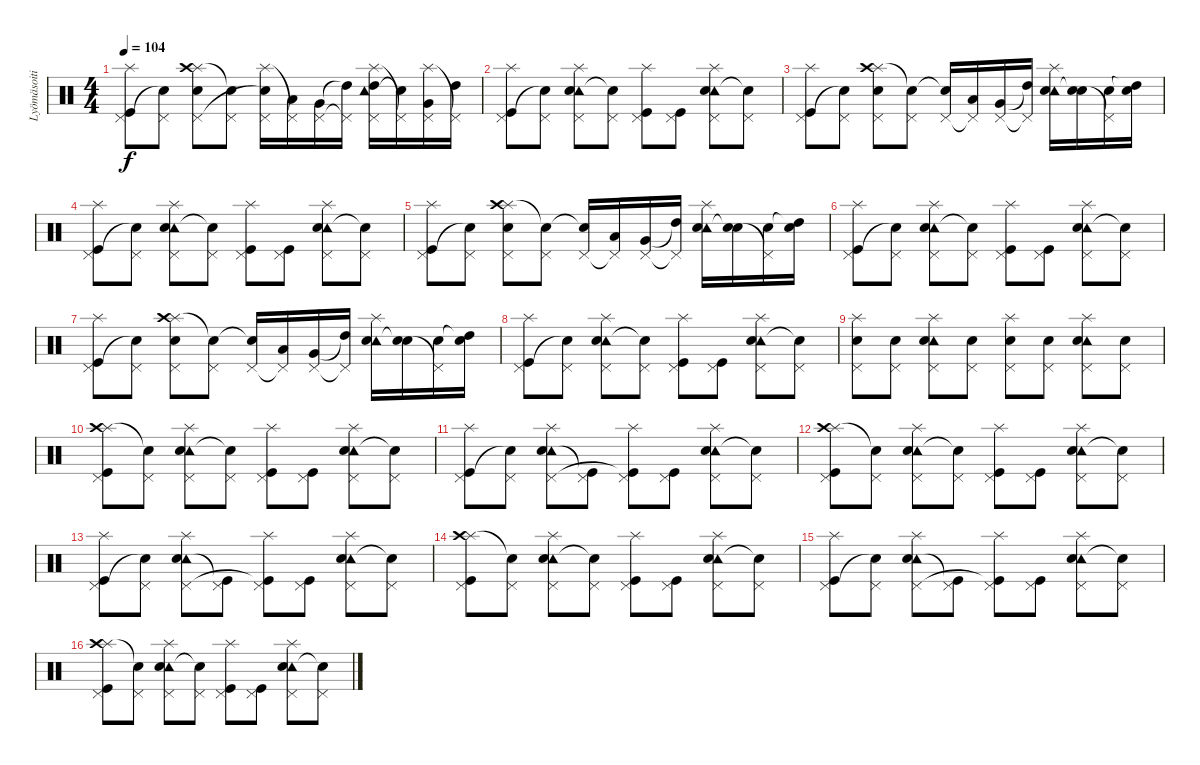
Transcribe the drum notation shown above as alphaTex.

\track ("Lyömäsoitin" "Lyömäsoiti") {instrument percussion}
\staff {score}
\articulation defaults
\ts (4 4)
\tempo 104
\clef neutral
\ks c
("Splash (hit)" "Pedal Hi-Hat (hit)" "Kick (hit)").8{dy f} ("Pedal Hi-Hat (hit)" "Snare (hit)"{t}).8 ("Splash (hit)" "Crash high (hit)" "Pedal Hi-Hat (hit)" "Snare (hit) 2").8 ("Pedal Hi-Hat (hit)" "Snare (hit)"{t}).8 ("Splash (hit)" "Pedal Hi-Hat (hit)" "Snare (hit)"{t}).16{volume 15} ("Pedal Hi-Hat (hit)"{t} "Low Tom (hit)").16 ("Pedal Hi-Hat (hit)" "Very Low Tom (hit)").16 ("Pedal Hi-Hat (hit)"{t} "High Tom (hit)"{t}).16 ("Splash (hit)" "Tambourine (hit)" "Pedal Hi-Hat (hit)" "High Tom (hit)").16 ("Pedal Hi-Hat (hit)"{t} "Snare (hit)"{t}).16 ("Splash (hit)" "Pedal Hi-Hat (hit)" "Very Low Tom (hit)").16 ("Pedal Hi-Hat (hit)"{t} "High Tom (hit)").16 |
("Splash (hit)" "Pedal Hi-Hat (hit)" "Kick (hit)").8 ("Pedal Hi-Hat (hit)" "Snare (hit)"{t}).8 ("Splash (hit)" "Tambourine (hit)" "Pedal Hi-Hat (hit)" "Snare (hit) 2").8 ("Pedal Hi-Hat (hit)" "Snare (hit)"{t}).8 ("Splash (hit)" "Pedal Hi-Hat (hit)" "Kick (hit)").8 ("Pedal Hi-Hat (hit)" "Kick (hit)").8 ("Splash (hit)" "Tambourine (hit)" "Pedal Hi-Hat (hit)" "Snare (hit) 2").8 ("Pedal Hi-Hat (hit)" "Snare (hit)"{t}).8 |
("Splash (hit)" "Pedal Hi-Hat (hit)" "Kick (hit)").8 ("Pedal Hi-Hat (hit)" "Snare (hit)"{t}).8 ("Splash (hit)" "Crash high (hit)" "Pedal Hi-Hat (hit)" "Snare (hit) 2").8 ("Pedal Hi-Hat (hit)" "Snare (hit)"{t}).8 ("Pedal Hi-Hat (hit)" "Snare (hit)"{t}).16 ("Pedal Hi-Hat (hit)"{t} "Low Tom (hit)").16 ("Pedal Hi-Hat (hit)" "Very Low Tom (hit)").16 ("Pedal Hi-Hat (hit)"{t} "High Tom (hit)"{t}).16 ("Splash (hit)" "Tambourine (hit)" "Electric Snare (hit)").16 ("Electric Snare (hit)" "Snare (hit)"{t}).16 ("Pedal Hi-Hat (hit)"{t} "Electric Snare (hit)").16 ("Electric Snare (hit)" "High Tom (hit)"{t}).16 |
("Splash (hit)" "Pedal Hi-Hat (hit)" "Kick (hit)").8 ("Pedal Hi-Hat (hit)" "Snare (hit)"{t}).8 ("Splash (hit)" "Tambourine (hit)" "Pedal Hi-Hat (hit)" "Snare (hit) 2").8 ("Pedal Hi-Hat (hit)" "Snare (hit)"{t}).8 ("Splash (hit)" "Pedal Hi-Hat (hit)" "Kick (hit)").8 ("Pedal Hi-Hat (hit)" "Kick (hit)").8 ("Splash (hit)" "Tambourine (hit)" "Pedal Hi-Hat (hit)" "Snare (hit) 2").8 ("Pedal Hi-Hat (hit)" "Snare (hit)"{t}).8 |
("Splash (hit)" "Pedal Hi-Hat (hit)" "Kick (hit)").8 ("Pedal Hi-Hat (hit)" "Snare (hit)"{t}).8 ("Splash (hit)" "Crash high (hit)" "Pedal Hi-Hat (hit)" "Snare (hit) 2").8 ("Pedal Hi-Hat (hit)" "Snare (hit)"{t}).8 ("Pedal Hi-Hat (hit)" "Snare (hit)"{t}).16 ("Pedal Hi-Hat (hit)"{t} "Low Tom (hit)").16 ("Pedal Hi-Hat (hit)" "Very Low Tom (hit)").16 ("Pedal Hi-Hat (hit)"{t} "High Tom (hit)"{t}).16 ("Splash (hit)" "Tambourine (hit)" "Electric Snare (hit)").16 ("Electric Snare (hit)" "Snare (hit)"{t}).16 ("Pedal Hi-Hat (hit)"{t} "Electric Snare (hit)").16 ("Electric Snare (hit)" "High Tom (hit)"{t}).16 |
("Splash (hit)" "Pedal Hi-Hat (hit)" "Kick (hit)").8 ("Pedal Hi-Hat (hit)" "Snare (hit)"{t}).8 ("Splash (hit)" "Tambourine (hit)" "Pedal Hi-Hat (hit)" "Snare (hit) 2").8 ("Pedal Hi-Hat (hit)" "Snare (hit)"{t}).8 ("Splash (hit)" "Pedal Hi-Hat (hit)" "Kick (hit)").8 ("Pedal Hi-Hat (hit)" "Kick (hit)").8 ("Splash (hit)" "Tambourine (hit)" "Pedal Hi-Hat (hit)" "Snare (hit) 2").8 ("Pedal Hi-Hat (hit)" "Snare (hit)"{t}).8 |
("Splash (hit)" "Pedal Hi-Hat (hit)" "Kick (hit)").8 ("Pedal Hi-Hat (hit)" "Snare (hit)"{t}).8 ("Splash (hit)" "Crash high (hit)" "Pedal Hi-Hat (hit)" "Snare (hit) 2").8 ("Pedal Hi-Hat (hit)" "Snare (hit)"{t}).8 ("Pedal Hi-Hat (hit)" "Snare (hit)"{t}).16 ("Pedal Hi-Hat (hit)"{t} "Low Tom (hit)").16 ("Pedal Hi-Hat (hit)" "Very Low Tom (hit)").16 ("Pedal Hi-Hat (hit)"{t} "High Tom (hit)"{t}).16 ("Splash (hit)" "Tambourine (hit)" "Electric Snare (hit)").16 ("Electric Snare (hit)" "Snare (hit)"{t}).16 ("Pedal Hi-Hat (hit)"{t} "Electric Snare (hit)").16 ("Electric Snare (hit)" "High Tom (hit)"{t}).16 |
("Splash (hit)" "Pedal Hi-Hat (hit)" "Kick (hit)").8 ("Pedal Hi-Hat (hit)" "Snare (hit)"{t}).8 ("Splash (hit)" "Tambourine (hit)" "Pedal Hi-Hat (hit)" "Snare (hit) 2").8 ("Pedal Hi-Hat (hit)" "Snare (hit)"{t}).8 ("Splash (hit)" "Pedal Hi-Hat (hit)" "Kick (hit)").8 ("Pedal Hi-Hat (hit)" "Kick (hit)").8 ("Splash (hit)" "Tambourine (hit)" "Pedal Hi-Hat (hit)" "Snare (hit) 2").8 ("Pedal Hi-Hat (hit)" "Snare (hit)"{t}).8 |
("Splash (hit)" "Pedal Hi-Hat (hit)" "Snare (hit) 2").8 ("Pedal Hi-Hat (hit)" "Snare (hit) 2").8 ("Splash (hit)" "Tambourine (hit)" "Pedal Hi-Hat (hit)" "Snare (hit) 2").8 ("Pedal Hi-Hat (hit)" "Snare (hit) 2").8 ("Splash (hit)" "Pedal Hi-Hat (hit)" "Snare (hit) 2").8 ("Pedal Hi-Hat (hit)" "Snare (hit) 2").8 ("Splash (hit)" "Tambourine (hit)" "Pedal Hi-Hat (hit)" "Snare (hit) 2").8 ("Pedal Hi-Hat (hit)" "Snare (hit) 2").8 |
("Splash (hit)" "Crash high (hit)" "Pedal Hi-Hat (hit)" "Kick (hit)").8 ("Pedal Hi-Hat (hit)" "Snare (hit)"{t}).8 ("Splash (hit)" "Tambourine (hit)" "Pedal Hi-Hat (hit)" "Snare (hit) 2").8 ("Pedal Hi-Hat (hit)" "Snare (hit)"{t}).8 ("Splash (hit)" "Pedal Hi-Hat (hit)" "Kick (hit)").8 ("Pedal Hi-Hat (hit)" "Kick (hit)").8 ("Splash (hit)" "Tambourine (hit)" "Pedal Hi-Hat (hit)" "Snare (hit) 2").8 ("Pedal Hi-Hat (hit)" "Snare (hit)"{t}).8 |
("Splash (hit)" "Pedal Hi-Hat (hit)" "Kick (hit)").8 ("Pedal Hi-Hat (hit)" "Snare (hit)"{t}).8 ("Splash (hit)" "Tambourine (hit)" "Pedal Hi-Hat (hit)" "Snare (hit) 2").8 ("Pedal Hi-Hat (hit)" "Kick (hit)"{t}).8 ("Splash (hit)" "Pedal Hi-Hat (hit)" "Kick (hit)"{t}).8 ("Pedal Hi-Hat (hit)" "Kick (hit)").8 ("Splash (hit)" "Tambourine (hit)" "Pedal Hi-Hat (hit)" "Snare (hit) 2").8 ("Pedal Hi-Hat (hit)" "Snare (hit) 2"{t}).8 |
("Splash (hit)" "Crash high (hit)" "Pedal Hi-Hat (hit)" "Kick (hit)").8 ("Pedal Hi-Hat (hit)" "Snare (hit)"{t}).8 ("Splash (hit)" "Tambourine (hit)" "Pedal Hi-Hat (hit)" "Snare (hit) 2").8 ("Pedal Hi-Hat (hit)" "Snare (hit)"{t}).8 ("Splash (hit)" "Pedal Hi-Hat (hit)" "Kick (hit)").8 ("Pedal Hi-Hat (hit)" "Kick (hit)").8 ("Splash (hit)" "Tambourine (hit)" "Pedal Hi-Hat (hit)" "Snare (hit) 2").8 ("Pedal Hi-Hat (hit)" "Snare (hit)"{t}).8 |
("Splash (hit)" "Pedal Hi-Hat (hit)" "Kick (hit)").8 ("Pedal Hi-Hat (hit)" "Snare (hit)"{t}).8 ("Splash (hit)" "Tambourine (hit)" "Pedal Hi-Hat (hit)" "Snare (hit) 2").8 ("Pedal Hi-Hat (hit)" "Kick (hit)"{t}).8 ("Splash (hit)" "Pedal Hi-Hat (hit)" "Kick (hit)"{t}).8 ("Pedal Hi-Hat (hit)" "Kick (hit)").8 ("Splash (hit)" "Tambourine (hit)" "Pedal Hi-Hat (hit)" "Snare (hit) 2").8 ("Pedal Hi-Hat (hit)" "Snare (hit) 2"{t}).8 |
("Splash (hit)" "Crash high (hit)" "Pedal Hi-Hat (hit)" "Kick (hit)").8 ("Pedal Hi-Hat (hit)" "Snare (hit)"{t}).8 ("Splash (hit)" "Tambourine (hit)" "Pedal Hi-Hat (hit)" "Snare (hit) 2").8 ("Pedal Hi-Hat (hit)" "Snare (hit)"{t}).8 ("Splash (hit)" "Pedal Hi-Hat (hit)" "Kick (hit)").8 ("Pedal Hi-Hat (hit)" "Kick (hit)").8 ("Splash (hit)" "Tambourine (hit)" "Pedal Hi-Hat (hit)" "Snare (hit) 2").8 ("Pedal Hi-Hat (hit)" "Snare (hit)"{t}).8 |
("Splash (hit)" "Pedal Hi-Hat (hit)" "Kick (hit)").8 ("Pedal Hi-Hat (hit)" "Snare (hit)"{t}).8 ("Splash (hit)" "Tambourine (hit)" "Pedal Hi-Hat (hit)" "Snare (hit) 2").8 ("Pedal Hi-Hat (hit)" "Kick (hit)"{t}).8 ("Splash (hit)" "Pedal Hi-Hat (hit)" "Kick (hit)"{t}).8 ("Pedal Hi-Hat (hit)" "Kick (hit)").8 ("Splash (hit)" "Tambourine (hit)" "Pedal Hi-Hat (hit)" "Snare (hit) 2").8 ("Pedal Hi-Hat (hit)" "Snare (hit) 2"{t}).8 |
("Splash (hit)" "Crash high (hit)" "Pedal Hi-Hat (hit)" "Kick (hit)").8 ("Pedal Hi-Hat (hit)" "Snare (hit)"{t}).8 ("Splash (hit)" "Tambourine (hit)" "Pedal Hi-Hat (hit)" "Snare (hit) 2").8 ("Pedal Hi-Hat (hit)" "Snare (hit)"{t}).8 ("Splash (hit)" "Pedal Hi-Hat (hit)" "Kick (hit)").8 ("Pedal Hi-Hat (hit)" "Kick (hit)").8 ("Splash (hit)" "Tambourine (hit)" "Pedal Hi-Hat (hit)" "Snare (hit) 2").8 ("Pedal Hi-Hat (hit)" "Snare (hit)"{t}).8
